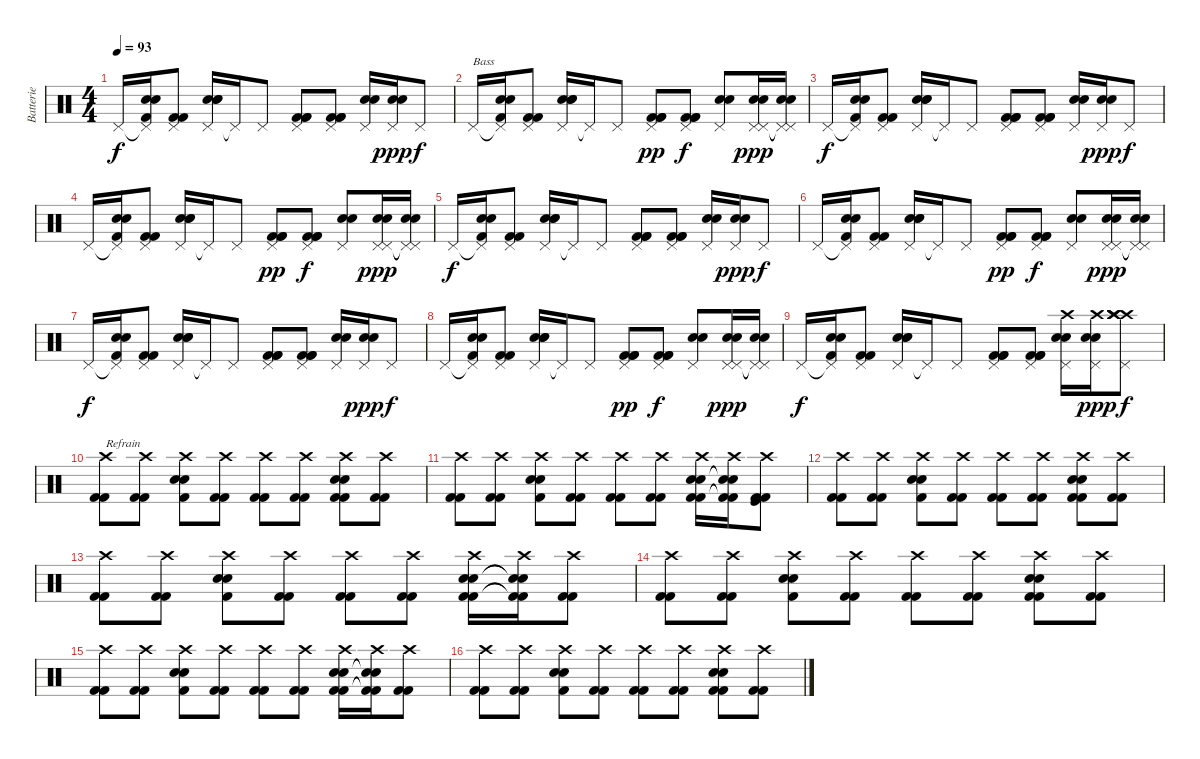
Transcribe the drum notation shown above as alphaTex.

\track ("Batterie" "Batterie") {instrument percussion}
\staff {score}
\articulation defaults
\ts (4 4)
\tempo 93
\clef neutral
\ks c "Pedal Hi-Hat (hit)".16{dy f}
("Pedal Hi-Hat (hit)"{t} "Snare (hit) 2" "Snare (hit) 2" "Kick (hit) 2").16 ("Pedal Hi-Hat (hit)" "Kick (hit) 2" "Kick (hit) 2").8 ("Pedal Hi-Hat (hit)" "Snare (hit) 2" "Snare (hit) 2" "Snare (hit) 2").16 "Pedal Hi-Hat (hit)"{t}.16 "Pedal Hi-Hat (hit)".8 ("Pedal Hi-Hat (hit)" "Kick (hit) 2" "Kick (hit) 2" "Kick (hit) 2").8 ("Pedal Hi-Hat (hit)" "Kick (hit) 2" "Kick (hit) 2" "Kick (hit) 2").8 ("Pedal Hi-Hat (hit)" "Snare (hit) 2" "Snare (hit) 2").16 ("Pedal Hi-Hat (hit)" "Snare (hit) 2" "Snare (hit) 2").16{dy ppp} "Pedal Hi-Hat (hit)".8{dy f} |
"Pedal Hi-Hat (hit)".16{txt "Bass"} ("Pedal Hi-Hat (hit)"{t} "Snare (hit) 2" "Snare (hit) 2" "Kick (hit) 2").16 ("Pedal Hi-Hat (hit)" "Kick (hit) 2" "Kick (hit) 2").8 ("Pedal Hi-Hat (hit)" "Snare (hit) 2" "Snare (hit) 2" "Snare (hit) 2").16 "Pedal Hi-Hat (hit)"{t}.16 "Pedal Hi-Hat (hit)".8 ("Pedal Hi-Hat (hit)" "Kick (hit) 2" "Kick (hit) 2" "Kick (hit) 2").8{dy pp} ("Pedal Hi-Hat (hit)" "Kick (hit) 2" "Kick (hit) 2" "Kick (hit) 2").8{dy f} ("Pedal Hi-Hat (hit)" "Snare (hit) 2" "Snare (hit) 2").8 ("Pedal Hi-Hat (hit)" "Pedal Hi-Hat (hit)" "Snare (hit) 2" "Snare (hit) 2").16{dy ppp} ("Pedal Hi-Hat (hit)"{t} "Pedal Hi-Hat (hit)"{t} "Snare (hit) 2" "Snare (hit) 2").16 |
"Pedal Hi-Hat (hit)".16{dy f} ("Pedal Hi-Hat (hit)"{t} "Snare (hit) 2" "Snare (hit) 2" "Kick (hit) 2").16 ("Pedal Hi-Hat (hit)" "Kick (hit) 2" "Kick (hit) 2").8 ("Pedal Hi-Hat (hit)" "Snare (hit) 2" "Snare (hit) 2" "Snare (hit) 2").16 "Pedal Hi-Hat (hit)"{t}.16 "Pedal Hi-Hat (hit)".8 ("Pedal Hi-Hat (hit)" "Kick (hit) 2" "Kick (hit) 2" "Kick (hit) 2").8 ("Pedal Hi-Hat (hit)" "Kick (hit) 2" "Kick (hit) 2" "Kick (hit) 2").8 ("Pedal Hi-Hat (hit)" "Snare (hit) 2" "Snare (hit) 2").16 ("Pedal Hi-Hat (hit)" "Snare (hit) 2" "Snare (hit) 2").16{dy ppp} "Pedal Hi-Hat (hit)".8{dy f} |
"Pedal Hi-Hat (hit)".16 ("Pedal Hi-Hat (hit)"{t} "Snare (hit) 2" "Snare (hit) 2" "Kick (hit) 2").16 ("Pedal Hi-Hat (hit)" "Kick (hit) 2" "Kick (hit) 2").8 ("Pedal Hi-Hat (hit)" "Snare (hit) 2" "Snare (hit) 2" "Snare (hit) 2").16 "Pedal Hi-Hat (hit)"{t}.16 "Pedal Hi-Hat (hit)".8 ("Pedal Hi-Hat (hit)" "Kick (hit) 2" "Kick (hit) 2" "Kick (hit) 2").8{dy pp} ("Pedal Hi-Hat (hit)" "Kick (hit) 2" "Kick (hit) 2" "Kick (hit) 2").8{dy f} ("Pedal Hi-Hat (hit)" "Snare (hit) 2" "Snare (hit) 2").8 ("Pedal Hi-Hat (hit)" "Pedal Hi-Hat (hit)" "Snare (hit) 2" "Snare (hit) 2").16{dy ppp} ("Pedal Hi-Hat (hit)"{t} "Pedal Hi-Hat (hit)"{t} "Snare (hit) 2" "Snare (hit) 2").16 |
"Pedal Hi-Hat (hit)".16{dy f} ("Pedal Hi-Hat (hit)"{t} "Snare (hit) 2" "Snare (hit) 2" "Kick (hit) 2").16 ("Pedal Hi-Hat (hit)" "Kick (hit) 2" "Kick (hit) 2").8 ("Pedal Hi-Hat (hit)" "Snare (hit) 2" "Snare (hit) 2" "Snare (hit) 2").16 "Pedal Hi-Hat (hit)"{t}.16 "Pedal Hi-Hat (hit)".8 ("Pedal Hi-Hat (hit)" "Kick (hit) 2" "Kick (hit) 2" "Kick (hit) 2").8 ("Pedal Hi-Hat (hit)" "Kick (hit) 2" "Kick (hit) 2" "Kick (hit) 2").8 ("Pedal Hi-Hat (hit)" "Snare (hit) 2" "Snare (hit) 2").16 ("Pedal Hi-Hat (hit)" "Snare (hit) 2" "Snare (hit) 2").16{dy ppp} "Pedal Hi-Hat (hit)".8{dy f} |
"Pedal Hi-Hat (hit)".16 ("Pedal Hi-Hat (hit)"{t} "Snare (hit) 2" "Snare (hit) 2" "Kick (hit) 2").16 ("Pedal Hi-Hat (hit)" "Kick (hit) 2" "Kick (hit) 2").8 ("Pedal Hi-Hat (hit)" "Snare (hit) 2" "Snare (hit) 2" "Snare (hit) 2").16 "Pedal Hi-Hat (hit)"{t}.16 "Pedal Hi-Hat (hit)".8 ("Pedal Hi-Hat (hit)" "Kick (hit) 2" "Kick (hit) 2" "Kick (hit) 2").8{dy pp} ("Pedal Hi-Hat (hit)" "Kick (hit) 2" "Kick (hit) 2" "Kick (hit) 2").8{dy f} ("Pedal Hi-Hat (hit)" "Snare (hit) 2" "Snare (hit) 2").8 ("Pedal Hi-Hat (hit)" "Pedal Hi-Hat (hit)" "Snare (hit) 2" "Snare (hit) 2").16{dy ppp} ("Pedal Hi-Hat (hit)"{t} "Pedal Hi-Hat (hit)"{t} "Snare (hit) 2" "Snare (hit) 2").16 |
"Pedal Hi-Hat (hit)".16{dy f} ("Pedal Hi-Hat (hit)"{t} "Snare (hit) 2" "Snare (hit) 2" "Kick (hit) 2").16 ("Pedal Hi-Hat (hit)" "Kick (hit) 2" "Kick (hit) 2").8 ("Pedal Hi-Hat (hit)" "Snare (hit) 2" "Snare (hit) 2" "Snare (hit) 2").16 "Pedal Hi-Hat (hit)"{t}.16 "Pedal Hi-Hat (hit)".8 ("Pedal Hi-Hat (hit)" "Kick (hit) 2" "Kick (hit) 2" "Kick (hit) 2").8 ("Pedal Hi-Hat (hit)" "Kick (hit) 2" "Kick (hit) 2" "Kick (hit) 2").8 ("Pedal Hi-Hat (hit)" "Snare (hit) 2" "Snare (hit) 2").16 ("Pedal Hi-Hat (hit)" "Snare (hit) 2" "Snare (hit) 2").16{dy ppp} "Pedal Hi-Hat (hit)".8{dy f} |
"Pedal Hi-Hat (hit)".16 ("Pedal Hi-Hat (hit)"{t} "Snare (hit) 2" "Snare (hit) 2" "Kick (hit) 2").16 ("Pedal Hi-Hat (hit)" "Kick (hit) 2" "Kick (hit) 2").8 ("Pedal Hi-Hat (hit)" "Snare (hit) 2" "Snare (hit) 2" "Snare (hit) 2").16 "Pedal Hi-Hat (hit)"{t}.16 "Pedal Hi-Hat (hit)".8 ("Pedal Hi-Hat (hit)" "Kick (hit) 2" "Kick (hit) 2" "Kick (hit) 2").8{dy pp} ("Pedal Hi-Hat (hit)" "Kick (hit) 2" "Kick (hit) 2" "Kick (hit) 2").8{dy f} ("Pedal Hi-Hat (hit)" "Snare (hit) 2" "Snare (hit) 2").8 ("Pedal Hi-Hat (hit)" "Pedal Hi-Hat (hit)" "Snare (hit) 2" "Snare (hit) 2").16{dy ppp} ("Pedal Hi-Hat (hit)"{t} "Pedal Hi-Hat (hit)"{t} "Snare (hit) 2" "Snare (hit) 2").16 |
"Pedal Hi-Hat (hit)".16{dy f} ("Pedal Hi-Hat (hit)"{t} "Snare (hit) 2" "Snare (hit) 2" "Kick (hit) 2").16 ("Pedal Hi-Hat (hit)" "Kick (hit) 2" "Kick (hit) 2").8 ("Pedal Hi-Hat (hit)" "Snare (hit) 2" "Snare (hit) 2" "Snare (hit) 2").16 "Pedal Hi-Hat (hit)"{t}.16 "Pedal Hi-Hat (hit)".8 ("Pedal Hi-Hat (hit)" "Kick (hit) 2" "Kick (hit) 2" "Kick (hit) 2").8 ("Pedal Hi-Hat (hit)" "Kick (hit) 2" "Kick (hit) 2" "Kick (hit) 2").8 ("Pedal Hi-Hat (hit)" "Snare (hit) 2" "Snare (hit) 2" "Crash high (hit)").16 ("Pedal Hi-Hat (hit)" "Snare (hit) 2" "Snare (hit) 2" "Crash high (hit)").16{dy ppp} ("Pedal Hi-Hat (hit)" "Crash high (hit)" "Crash high (hit)" "Crash high (hit)" "Crash high (hit)").8{dy f} |
("Crash high (hit)" "Kick (hit) 2" "Kick (hit) 2").8{txt "Refrain"} ("Crash high (hit)" "Kick (hit) 2" "Kick (hit) 2").8 ("Crash high (hit)" "Snare (hit) 2" "Snare (hit) 2" "Kick (hit) 2").8 ("Crash high (hit)" "Kick (hit) 2" "Kick (hit) 2").8 ("Crash high (hit)" "Kick (hit) 2" "Kick (hit) 2").8 ("Crash high (hit)" "Kick (hit) 2" "Kick (hit) 2").8 ("Crash high (hit)" "Snare (hit) 2" "Snare (hit) 2" "Kick (hit) 2" "Kick (hit) 2").8 ("Crash high (hit)" "Kick (hit) 2" "Kick (hit) 2").8 |
("Crash high (hit)" "Kick (hit) 2" "Kick (hit) 2").8 ("Crash high (hit)" "Kick (hit) 2" "Kick (hit) 2").8 ("Crash high (hit)" "Snare (hit) 2" "Snare (hit) 2" "Kick (hit) 2").8 ("Crash high (hit)" "Kick (hit) 2" "Kick (hit) 2").8 ("Crash high (hit)" "Kick (hit) 2" "Kick (hit) 2").8 ("Crash high (hit)" "Kick (hit) 2" "Kick (hit) 2").8 ("Crash high (hit)" "Snare (hit) 2" "Snare (hit) 2" "Kick (hit) 2" "Kick (hit) 2").16 ("Crash high (hit)" "Snare (hit) 2"{t} "Snare (hit) 2"{t} "Kick (hit) 2"{t} "Kick (hit) 2"{t}).16 ("Crash high (hit)" "Kick (hit) 2" "Kick (hit) 2" "Kick (hit)").8 |
("Crash high (hit)" "Kick (hit) 2" "Kick (hit) 2").8 ("Crash high (hit)" "Kick (hit) 2" "Kick (hit) 2").8 ("Crash high (hit)" "Snare (hit) 2" "Snare (hit) 2" "Kick (hit) 2").8 ("Crash high (hit)" "Kick (hit) 2" "Kick (hit) 2").8 ("Crash high (hit)" "Kick (hit) 2" "Kick (hit) 2").8 ("Crash high (hit)" "Kick (hit) 2" "Kick (hit) 2").8 ("Crash high (hit)" "Snare (hit) 2" "Snare (hit) 2" "Kick (hit) 2" "Kick (hit) 2").8 ("Crash high (hit)" "Kick (hit) 2" "Kick (hit) 2").8 |
("Crash high (hit)" "Kick (hit) 2" "Kick (hit) 2").8 ("Crash high (hit)" "Kick (hit) 2" "Kick (hit) 2").8 ("Crash high (hit)" "Snare (hit) 2" "Snare (hit) 2" "Kick (hit) 2").8 ("Crash high (hit)" "Kick (hit) 2" "Kick (hit) 2").8 ("Crash high (hit)" "Kick (hit) 2" "Kick (hit) 2").8 ("Crash high (hit)" "Kick (hit) 2" "Kick (hit) 2").8 ("Crash high (hit)" "Snare (hit) 2" "Snare (hit) 2" "Kick (hit) 2" "Kick (hit) 2").16 ("Crash high (hit)" "Snare (hit) 2"{t} "Snare (hit) 2"{t} "Kick (hit) 2"{t} "Kick (hit) 2"{t}).16 ("Crash high (hit)" "Kick (hit) 2" "Kick (hit) 2").8 |
("Crash high (hit)" "Kick (hit) 2" "Kick (hit) 2").8 ("Crash high (hit)" "Kick (hit) 2" "Kick (hit) 2").8 ("Crash high (hit)" "Snare (hit) 2" "Snare (hit) 2" "Kick (hit) 2").8 ("Crash high (hit)" "Kick (hit) 2" "Kick (hit) 2").8 ("Crash high (hit)" "Kick (hit) 2" "Kick (hit) 2").8 ("Crash high (hit)" "Kick (hit) 2" "Kick (hit) 2").8 ("Crash high (hit)" "Snare (hit) 2" "Snare (hit) 2" "Kick (hit) 2" "Kick (hit) 2").8 ("Crash high (hit)" "Kick (hit) 2" "Kick (hit) 2").8 |
("Crash high (hit)" "Kick (hit) 2" "Kick (hit) 2").8 ("Crash high (hit)" "Kick (hit) 2" "Kick (hit) 2").8 ("Crash high (hit)" "Snare (hit) 2" "Snare (hit) 2" "Kick (hit) 2").8 ("Crash high (hit)" "Kick (hit) 2" "Kick (hit) 2").8 ("Crash high (hit)" "Kick (hit) 2" "Kick (hit) 2").8 ("Crash high (hit)" "Kick (hit) 2" "Kick (hit) 2").8 ("Crash high (hit)" "Snare (hit) 2" "Snare (hit) 2" "Kick (hit) 2" "Kick (hit) 2").16 ("Crash high (hit)" "Snare (hit) 2"{t} "Snare (hit) 2"{t} "Kick (hit) 2"{t} "Kick (hit) 2"{t}).16 ("Crash high (hit)" "Kick (hit) 2" "Kick (hit) 2").8 |
("Crash high (hit)" "Kick (hit) 2" "Kick (hit) 2").8 ("Crash high (hit)" "Kick (hit) 2" "Kick (hit) 2").8 ("Crash high (hit)" "Snare (hit) 2" "Snare (hit) 2" "Kick (hit) 2").8 ("Crash high (hit)" "Kick (hit) 2" "Kick (hit) 2").8 ("Crash high (hit)" "Kick (hit) 2" "Kick (hit) 2").8 ("Crash high (hit)" "Kick (hit) 2" "Kick (hit) 2").8 ("Crash high (hit)" "Snare (hit) 2" "Snare (hit) 2" "Kick (hit) 2" "Kick (hit) 2").8 ("Crash high (hit)" "Kick (hit) 2" "Kick (hit) 2").8
